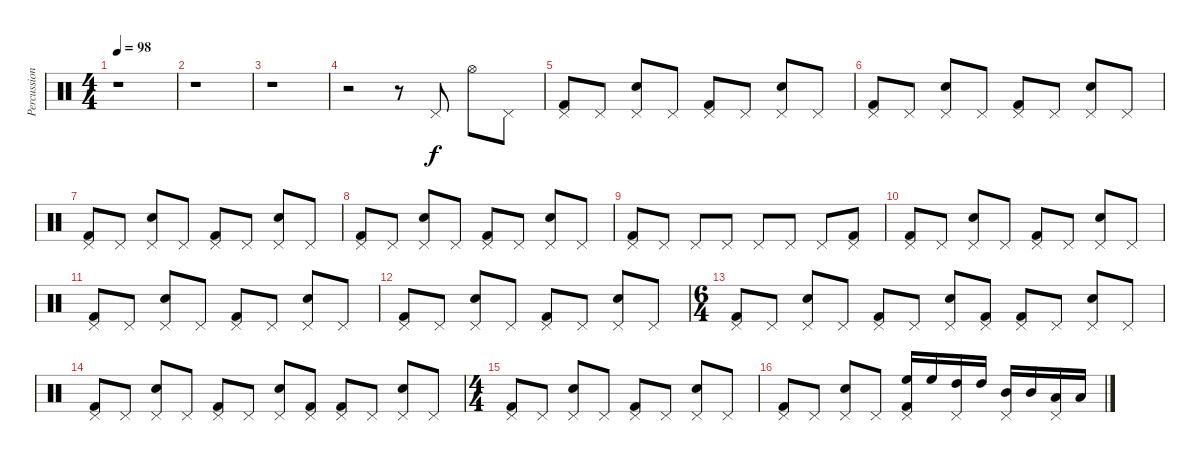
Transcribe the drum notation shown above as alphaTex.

\track ("Percussions" "Percussion") {instrument percussion}
\staff {score}
\articulation defaults
\ts (4 4)
\tempo 98
\clef neutral
\ks c
r.1{dy f} |
r.1 |
r.1 |
r.2 r.8 "Pedal Hi-Hat (hit)".8 "Hi-Hat (open)".8 "Pedal Hi-Hat (hit)".8 |
("Pedal Hi-Hat (hit)" "Kick (hit) 2").8 "Pedal Hi-Hat (hit)".8 ("Pedal Hi-Hat (hit)" "Electric Snare (hit)").8 "Pedal Hi-Hat (hit)".8 ("Pedal Hi-Hat (hit)" "Kick (hit) 2").8 "Pedal Hi-Hat (hit)".8 ("Pedal Hi-Hat (hit)" "Electric Snare (hit)").8 "Pedal Hi-Hat (hit)".8 |
("Pedal Hi-Hat (hit)" "Kick (hit) 2").8 "Pedal Hi-Hat (hit)".8 ("Pedal Hi-Hat (hit)" "Electric Snare (hit)").8 "Pedal Hi-Hat (hit)".8 ("Pedal Hi-Hat (hit)" "Kick (hit) 2").8 "Pedal Hi-Hat (hit)".8 ("Pedal Hi-Hat (hit)" "Electric Snare (hit)").8 "Pedal Hi-Hat (hit)".8 |
("Pedal Hi-Hat (hit)" "Kick (hit) 2").8 "Pedal Hi-Hat (hit)".8 ("Pedal Hi-Hat (hit)" "Electric Snare (hit)").8 "Pedal Hi-Hat (hit)".8 ("Pedal Hi-Hat (hit)" "Kick (hit) 2").8 "Pedal Hi-Hat (hit)".8 ("Pedal Hi-Hat (hit)" "Electric Snare (hit)").8 "Pedal Hi-Hat (hit)".8 |
("Pedal Hi-Hat (hit)" "Kick (hit) 2").8 "Pedal Hi-Hat (hit)".8 ("Pedal Hi-Hat (hit)" "Electric Snare (hit)").8 "Pedal Hi-Hat (hit)".8 ("Pedal Hi-Hat (hit)" "Kick (hit) 2").8 "Pedal Hi-Hat (hit)".8 ("Pedal Hi-Hat (hit)" "Electric Snare (hit)").8 "Pedal Hi-Hat (hit)".8 |
("Pedal Hi-Hat (hit)" "Kick (hit) 2").8 "Pedal Hi-Hat (hit)".8 "Pedal Hi-Hat (hit)".8 "Pedal Hi-Hat (hit)".8 "Pedal Hi-Hat (hit)".8 "Pedal Hi-Hat (hit)".8 "Pedal Hi-Hat (hit)".8 ("Pedal Hi-Hat (hit)" "Kick (hit) 2").8 |
("Pedal Hi-Hat (hit)" "Kick (hit) 2").8 "Pedal Hi-Hat (hit)".8 ("Pedal Hi-Hat (hit)" "Electric Snare (hit)").8 "Pedal Hi-Hat (hit)".8 ("Pedal Hi-Hat (hit)" "Kick (hit) 2").8 "Pedal Hi-Hat (hit)".8 ("Pedal Hi-Hat (hit)" "Electric Snare (hit)").8 "Pedal Hi-Hat (hit)".8 |
("Pedal Hi-Hat (hit)" "Kick (hit) 2").8 "Pedal Hi-Hat (hit)".8 ("Pedal Hi-Hat (hit)" "Electric Snare (hit)").8 "Pedal Hi-Hat (hit)".8 ("Pedal Hi-Hat (hit)" "Kick (hit) 2").8 "Pedal Hi-Hat (hit)".8 ("Pedal Hi-Hat (hit)" "Electric Snare (hit)").8 "Pedal Hi-Hat (hit)".8 |
("Pedal Hi-Hat (hit)" "Kick (hit) 2").8 "Pedal Hi-Hat (hit)".8 ("Pedal Hi-Hat (hit)" "Electric Snare (hit)").8 "Pedal Hi-Hat (hit)".8 ("Pedal Hi-Hat (hit)" "Kick (hit) 2").8 "Pedal Hi-Hat (hit)".8 ("Pedal Hi-Hat (hit)" "Electric Snare (hit)").8 "Pedal Hi-Hat (hit)".8 |
\ts (6 4)
("Pedal Hi-Hat (hit)" "Kick (hit) 2").8 "Pedal Hi-Hat (hit)".8 ("Pedal Hi-Hat (hit)" "Electric Snare (hit)").8 "Pedal Hi-Hat (hit)".8 ("Pedal Hi-Hat (hit)" "Kick (hit) 2").8 "Pedal Hi-Hat (hit)".8 ("Pedal Hi-Hat (hit)" "Electric Snare (hit)").8 ("Pedal Hi-Hat (hit)" "Kick (hit) 2").8 ("Pedal Hi-Hat (hit)" "Kick (hit) 2").8 "Pedal Hi-Hat (hit)".8 ("Pedal Hi-Hat (hit)" "Electric Snare (hit)").8 "Pedal Hi-Hat (hit)".8 |
("Pedal Hi-Hat (hit)" "Kick (hit) 2").8 "Pedal Hi-Hat (hit)".8 ("Pedal Hi-Hat (hit)" "Electric Snare (hit)").8 "Pedal Hi-Hat (hit)".8 ("Pedal Hi-Hat (hit)" "Kick (hit) 2").8 "Pedal Hi-Hat (hit)".8 ("Pedal Hi-Hat (hit)" "Electric Snare (hit)").8 ("Pedal Hi-Hat (hit)" "Kick (hit) 2").8 ("Pedal Hi-Hat (hit)" "Kick (hit) 2").8 "Pedal Hi-Hat (hit)".8 ("Pedal Hi-Hat (hit)" "Electric Snare (hit)").8 "Pedal Hi-Hat (hit)".8 |
\ts (4 4)
("Pedal Hi-Hat (hit)" "Kick (hit) 2").8 "Pedal Hi-Hat (hit)".8 ("Pedal Hi-Hat (hit)" "Electric Snare (hit)").8 "Pedal Hi-Hat (hit)".8 ("Pedal Hi-Hat (hit)" "Kick (hit) 2").8 "Pedal Hi-Hat (hit)".8 ("Pedal Hi-Hat (hit)" "Electric Snare (hit)").8 "Pedal Hi-Hat (hit)".8 |
("Pedal Hi-Hat (hit)" "Kick (hit) 2").8 "Pedal Hi-Hat (hit)".8 ("Pedal Hi-Hat (hit)" "Electric Snare (hit)").8 "Pedal Hi-Hat (hit)".8 ("Pedal Hi-Hat (hit)" "High Floor Tom (hit)" "Kick (hit) 2").16 "High Floor Tom (hit)".16 ("Pedal Hi-Hat (hit)" "High Tom (hit)").16 "High Tom (hit)".16 ("Pedal Hi-Hat (hit)" "Mid Tom (hit)").16 "Mid Tom (hit)".16 ("Pedal Hi-Hat (hit)" "Low Tom (hit)").16 "Low Tom (hit)".16
